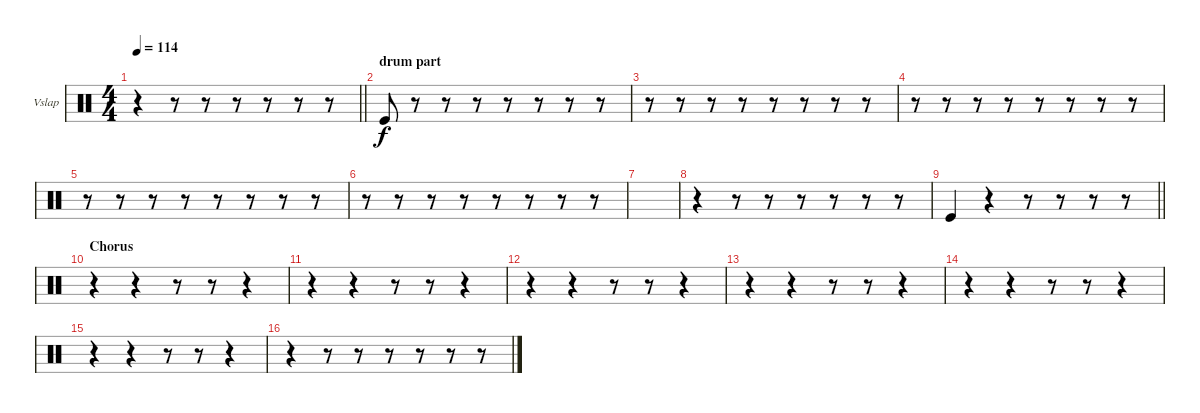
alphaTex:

\bracketExtendMode groupsimilarinstruments
\firstSystemTrackNameOrientation horizontal
\otherSystemsTrackNameOrientation horizontal
\track ("Vibraslap" "Vslap") {instrument percussion}
\staff {score}
\articulation defaults
\ts (4 4)
\tempo 114
\clef neutral
\barLineRight lightlight
\ks c
r.4{tp 1 dy f} r.8 r.8{tp 2} r.8 r.8{tp 2} r.8{tp 2} r.8{tp 2} |
\section ("" "drum part")
"Kick (hit)".8 r.8 r.8 r.8 r.8 r.8 r.8 r.8 |
r.8 r.8 r.8 r.8 r.8 r.8 r.8 r.8 |
r.8 r.8 r.8 r.8 r.8 r.8 r.8 r.8 |
r.8 r.8 r.8 r.8 r.8 r.8 r.8 r.8 |
r.8 r.8 r.8 r.8 r.8 r.8 r.8 r.8 |
|
r.4 r.8 r.8{tp 2} r.8 r.8{tp 2} r.8{tp 2} r.8{tp 2} |
\barLineRight lightlight "Kick (hit)".4
r.4 r.8 r.8 r.8 r.8 |
\section ("" "Chorus")
r.4 r.4 r.8 r.8 r.4 |
r.4 r.4 r.8 r.8 r.4{tp 2} |
r.4 r.4 r.8 r.8 r.4 |
r.4 r.4 r.8 r.8 r.4{tp 1} |
r.4 r.4 r.8 r.8 r.4 |
r.4 r.4 r.8 r.8 r.4 |
r.4 r.8 r.8{tp 2} r.8 r.8{tp 2} r.8{tp 2} r.8{tp 2}
